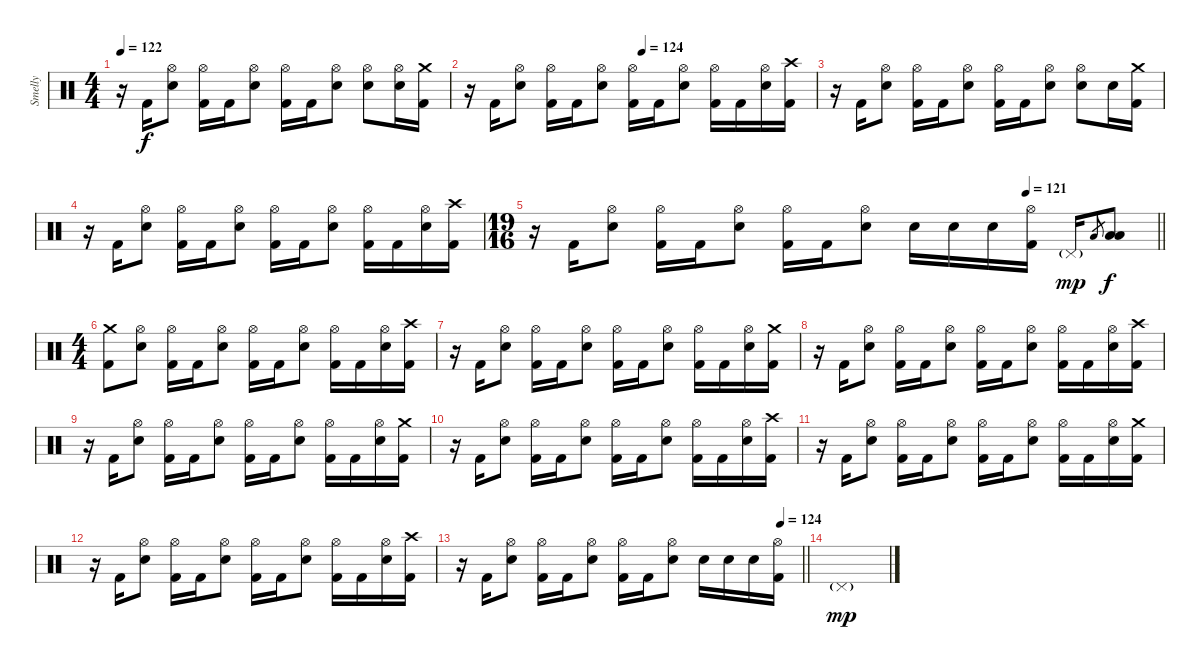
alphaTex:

\track ("Smelly" "Smelly") {instrument percussion}
\staff {score}
\articulation defaults
\ts (4 4)
\tempo 122
\clef neutral
\ks c
r.16{dy f} "Kick (hit) 2".16 ("Hi-Hat (open)" "Electric Snare (hit)").8 ("Hi-Hat (open)" "Kick (hit) 2").16 "Kick (hit) 2".16 ("Hi-Hat (open)" "Electric Snare (hit)").8 ("Hi-Hat (open)" "Kick (hit) 2").16 "Kick (hit) 2".16 ("Hi-Hat (open)" "Electric Snare (hit)").8 ("Hi-Hat (open)" "Electric Snare (hit)").8 ("Hi-Hat (open)" "Electric Snare (hit)").16 ("Crash medium (hit)" "Kick (hit) 2").16 |
\tempo (124 0.5)
r.16 "Kick (hit) 2".16 ("Hi-Hat (open)" "Electric Snare (hit)").8 ("Hi-Hat (open)" "Kick (hit) 2").16 "Kick (hit) 2".16 ("Hi-Hat (open)" "Electric Snare (hit)").8 ("Hi-Hat (open)" "Kick (hit) 2").16 "Kick (hit) 2".16 ("Hi-Hat (open)" "Electric Snare (hit)").8 ("Hi-Hat (open)" "Kick (hit) 2").16 "Kick (hit) 2".16 ("Hi-Hat (open)" "Electric Snare (hit)").16 ("Crash high (hit)" "Kick (hit) 2").16 |
r.16 "Kick (hit) 2".16 ("Hi-Hat (open)" "Electric Snare (hit)").8 ("Hi-Hat (open)" "Kick (hit) 2").16 "Kick (hit) 2".16 ("Hi-Hat (open)" "Electric Snare (hit)").8 ("Hi-Hat (open)" "Kick (hit) 2").16 "Kick (hit) 2".16 ("Hi-Hat (open)" "Electric Snare (hit)").8 ("Hi-Hat (open)" "Electric Snare (hit)").8 "Electric Snare (hit)".16 ("Crash medium (hit)" "Kick (hit) 2").16 |
r.16 "Kick (hit) 2".16 ("Hi-Hat (open)" "Electric Snare (hit)").8 ("Hi-Hat (open)" "Kick (hit) 2").16 "Kick (hit) 2".16 ("Hi-Hat (open)" "Electric Snare (hit)").8 ("Hi-Hat (open)" "Kick (hit) 2").16 "Kick (hit) 2".16 ("Hi-Hat (open)" "Electric Snare (hit)").8 ("Hi-Hat (open)" "Kick (hit) 2").16 "Kick (hit) 2".16 ("Hi-Hat (open)" "Electric Snare (hit)").16 ("Crash high (hit)" "Kick (hit) 2").16 |
\ts (19 16)
\tempo (121 0.7894736842105263)
\barLineRight lightlight
r.16 "Kick (hit) 2".16 ("Hi-Hat (open)" "Electric Snare (hit)").8 ("Hi-Hat (open)" "Kick (hit) 2").16 "Kick (hit) 2".16 ("Hi-Hat (open)" "Electric Snare (hit)").8 ("Hi-Hat (open)" "Kick (hit) 2").16 "Kick (hit) 2".16 ("Hi-Hat (open)" "Electric Snare (hit)").8 "Electric Snare (hit)".16 "Electric Snare (hit)".16 "Electric Snare (hit)".16 ("Hi-Hat (open)" "Kick (hit) 2").16 "Pedal Hi-Hat (hit)"{g}.16{dy mp} "Low Tom (hit)".8{gr} ("Low Tom (hit)" "Low Floor Tom (hit)").8{dy f} |
\ts (4 4)
\section ("" "")
("Crash medium (hit)" "Kick (hit) 2").8 ("Hi-Hat (open)" "Electric Snare (hit)").8 ("Hi-Hat (open)" "Kick (hit) 2").16 "Kick (hit) 2".16 ("Hi-Hat (open)" "Electric Snare (hit)").8 ("Hi-Hat (open)" "Kick (hit) 2").16 "Kick (hit) 2".16 ("Hi-Hat (open)" "Electric Snare (hit)").8 ("Hi-Hat (open)" "Kick (hit) 2").16 "Kick (hit) 2".16 ("Hi-Hat (open)" "Electric Snare (hit)").16 ("Crash high (hit)" "Kick (hit) 2").16 |
r.16 "Kick (hit) 2".16 ("Hi-Hat (open)" "Electric Snare (hit)").8 ("Hi-Hat (open)" "Kick (hit) 2").16 "Kick (hit) 2".16 ("Hi-Hat (open)" "Electric Snare (hit)").8 ("Hi-Hat (open)" "Kick (hit) 2").16 "Kick (hit) 2".16 ("Hi-Hat (open)" "Electric Snare (hit)").8 ("Hi-Hat (open)" "Kick (hit) 2").16 "Kick (hit) 2".16 ("Hi-Hat (open)" "Electric Snare (hit)").16 ("Crash medium (hit)" "Kick (hit) 2").16 |
r.16 "Kick (hit) 2".16 ("Hi-Hat (open)" "Electric Snare (hit)").8 ("Hi-Hat (open)" "Kick (hit) 2").16 "Kick (hit) 2".16 ("Hi-Hat (open)" "Electric Snare (hit)").8 ("Hi-Hat (open)" "Kick (hit) 2").16 "Kick (hit) 2".16 ("Hi-Hat (open)" "Electric Snare (hit)").8 ("Hi-Hat (open)" "Kick (hit) 2").16 "Kick (hit) 2".16 ("Hi-Hat (open)" "Electric Snare (hit)").16 ("Crash high (hit)" "Kick (hit) 2").16 |
r.16 "Kick (hit) 2".16 ("Hi-Hat (open)" "Electric Snare (hit)").8 ("Hi-Hat (open)" "Kick (hit) 2").16 "Kick (hit) 2".16 ("Hi-Hat (open)" "Electric Snare (hit)").8 ("Hi-Hat (open)" "Kick (hit) 2").16 "Kick (hit) 2".16 ("Hi-Hat (open)" "Electric Snare (hit)").8 ("Hi-Hat (open)" "Kick (hit) 2").16 "Kick (hit) 2".16 ("Hi-Hat (open)" "Electric Snare (hit)").16 ("Crash medium (hit)" "Kick (hit) 2").16 |
r.16 "Kick (hit) 2".16 ("Hi-Hat (open)" "Electric Snare (hit)").8 ("Hi-Hat (open)" "Kick (hit) 2").16 "Kick (hit) 2".16 ("Hi-Hat (open)" "Electric Snare (hit)").8 ("Hi-Hat (open)" "Kick (hit) 2").16 "Kick (hit) 2".16 ("Hi-Hat (open)" "Electric Snare (hit)").8 ("Hi-Hat (open)" "Kick (hit) 2").16 "Kick (hit) 2".16 ("Hi-Hat (open)" "Electric Snare (hit)").16 ("Crash high (hit)" "Kick (hit) 2").16 |
r.16 "Kick (hit) 2".16 ("Hi-Hat (open)" "Electric Snare (hit)").8 ("Hi-Hat (open)" "Kick (hit) 2").16 "Kick (hit) 2".16 ("Hi-Hat (open)" "Electric Snare (hit)").8 ("Hi-Hat (open)" "Kick (hit) 2").16 "Kick (hit) 2".16 ("Hi-Hat (open)" "Electric Snare (hit)").8 ("Hi-Hat (open)" "Kick (hit) 2").16 "Kick (hit) 2".16 ("Hi-Hat (open)" "Electric Snare (hit)").16 ("Crash medium (hit)" "Kick (hit) 2").16 |
r.16 "Kick (hit) 2".16 ("Hi-Hat (open)" "Electric Snare (hit)").8 ("Hi-Hat (open)" "Kick (hit) 2").16 "Kick (hit) 2".16 ("Hi-Hat (open)" "Electric Snare (hit)").8 ("Hi-Hat (open)" "Kick (hit) 2").16 "Kick (hit) 2".16 ("Hi-Hat (open)" "Electric Snare (hit)").8 ("Hi-Hat (open)" "Kick (hit) 2").16 "Kick (hit) 2".16 ("Hi-Hat (open)" "Electric Snare (hit)").16 ("Crash high (hit)" "Kick (hit) 2").16 |
\tempo (124 0.9375)
\barLineRight lightlight
r.16 "Kick (hit) 2".16 ("Hi-Hat (open)" "Electric Snare (hit)").8 ("Hi-Hat (open)" "Kick (hit) 2").16 "Kick (hit) 2".16 ("Hi-Hat (open)" "Electric Snare (hit)").8 ("Hi-Hat (open)" "Kick (hit) 2").16 "Kick (hit) 2".16 ("Hi-Hat (open)" "Electric Snare (hit)").8 "Electric Snare (hit)".16 "Electric Snare (hit)".16 "Electric Snare (hit)".16 ("Hi-Hat (open)" "Kick (hit) 2").16 |
\section ("" "")
"Pedal Hi-Hat (hit)"{g}.1{dy mp}
